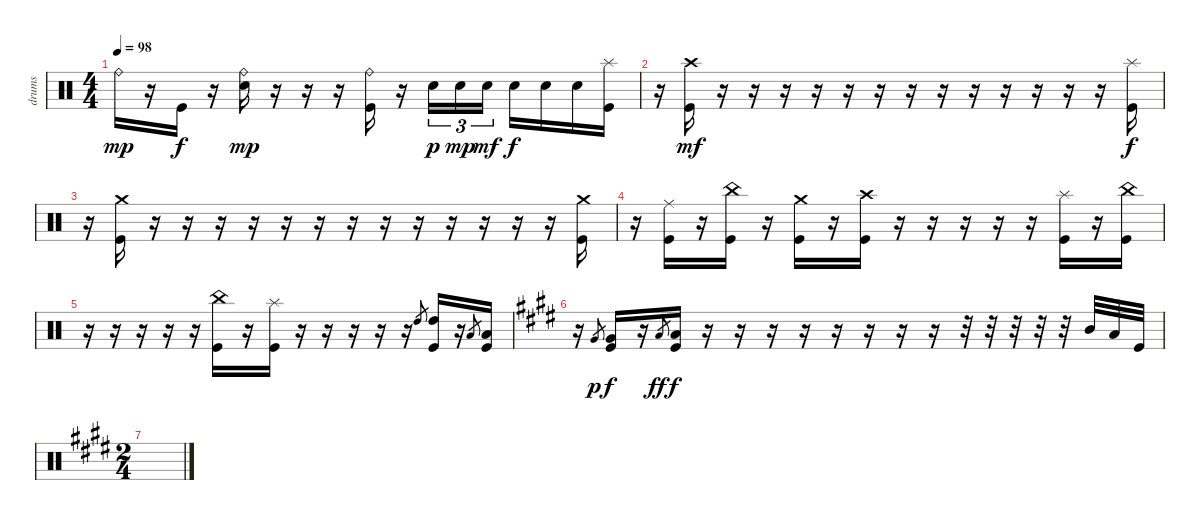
\track ("drums" "drums") {instrument percussion}
\staff {score}
\articulation defaults
\ts (4 4)
\tempo 98
\clef neutral
\ks c "Ride (bell)".16{dy mp}
r.16 "Kick (hit)".16{dy f} r.16 ("Ride (bell)" "Electric Snare (hit)").16{dy mp} r.16 r.16 r.16 ("Ride (bell)" "Kick (hit)").16 r.16 "Electric Snare (hit)".16{tu (3 2) dy p} "Electric Snare (hit)".16{tu (3 2) dy mp} "Electric Snare (hit)".16{tu (3 2) dy mf} "Electric Snare (hit)".16{dy f} "Electric Snare (hit)".16 "Electric Snare (hit)".16 ("Splash (hit)" "Kick (hit)").16 |
r.16 ("Crash high (hit)" "Kick (hit)").16{dy mf} r.16 r.16 r.16 r.16 r.16 r.16 r.16 r.16 r.16 r.16 r.16 r.16 r.16 ("Splash (hit)" "Kick (hit)").16{dy f} |
r.16 ("Crash medium (hit)" "Kick (hit)").16 r.16 r.16 r.16 r.16 r.16 r.16 r.16 r.16 r.16 r.16 r.16 r.16 r.16 ("Crash medium (hit)" "Kick (hit)").16 |
r.16 ("Ride (middle)" "Kick (hit)").16 r.16 ("China (hit)" "Kick (hit)").16 r.16 ("Crash medium (hit)" "Kick (hit)").16 r.16 ("Crash high (hit)" "Kick (hit)").16 r.16 r.16 r.16 r.16 r.16 ("Splash (hit)" "Kick (hit)").16 r.16 ("China (hit)" "Kick (hit)").16 |
r.16 r.16 r.16 r.16 r.16 ("China (hit)" "Kick (hit)").16 r.16 ("Splash (hit)" "Kick (hit)").16 r.16 r.16 r.16 r.16 r.16 "High Tom (hit)".8{gr} ("High Tom (hit)" "Kick (hit)").16 r.16 "Low Tom (hit)".8{gr} ("Low Tom (hit)" "Kick (hit)").16 |
\ks e
r.16 "Very Low Tom (hit)".8{gr dy p} ("Very Low Tom (hit)" "Kick (hit)").16{dy f} r.16 "Low Floor Tom (hit)".8{gr dy ff} ("Low Floor Tom (hit)" "Kick (hit)").16{dy f} r.16 r.16 r.16 r.16 r.16 r.16 r.16 r.16 r.32 r.32 r.32 r.32 r.32 "Mid Tom (hit)".32 "Low Tom (hit)".32 "Kick (hit)".32 |
\ts (2 4)
